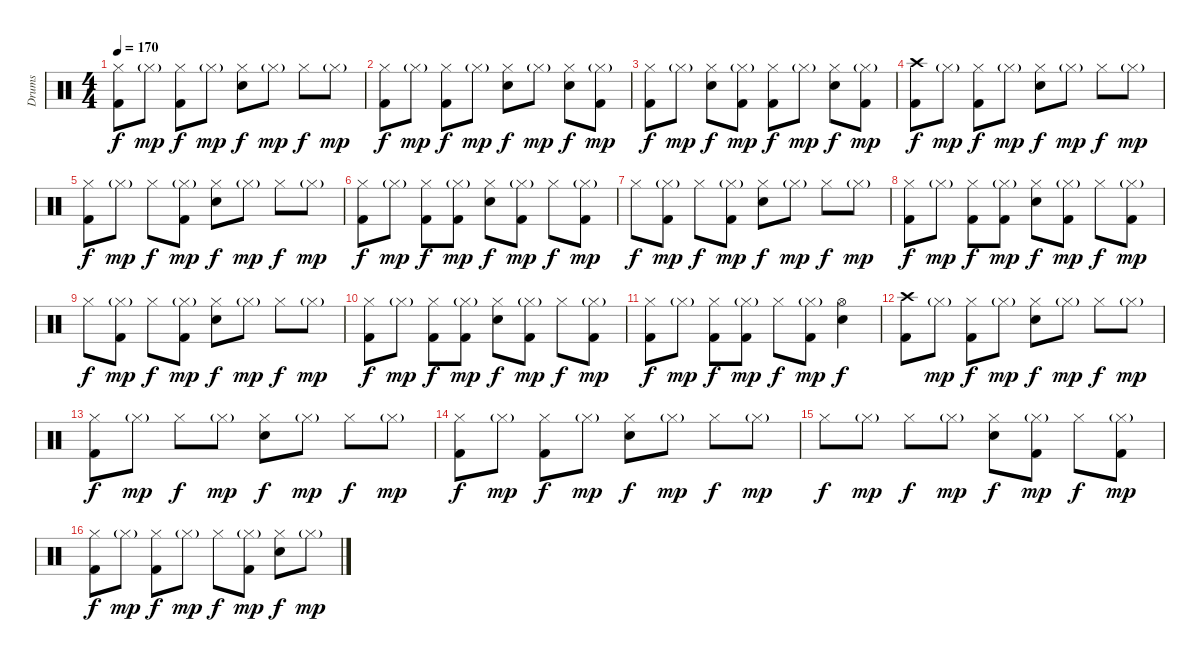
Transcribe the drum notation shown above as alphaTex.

\track ("Drums" "Drums") {instrument percussion}
\staff {score}
\articulation defaults
\ts (4 4)
\tempo 170
\clef neutral
\ks c
("Hi-Hat (closed)" "Kick (hit) 2").8{dy f} "Hi-Hat (closed)"{g}.8{dy mp} ("Hi-Hat (closed)" "Kick (hit) 2").8{dy f} "Hi-Hat (closed)"{g}.8{dy mp} ("Hi-Hat (closed)" "Snare (hit) 2").8{dy f} "Hi-Hat (closed)"{g}.8{dy mp} "Hi-Hat (closed)".8{dy f} "Hi-Hat (closed)"{g}.8{dy mp} |
("Hi-Hat (closed)" "Kick (hit) 2").8{dy f} "Hi-Hat (closed)"{g}.8{dy mp} ("Hi-Hat (closed)" "Kick (hit) 2").8{dy f} "Hi-Hat (closed)"{g}.8{dy mp} ("Hi-Hat (closed)" "Snare (hit) 2").8{dy f} "Hi-Hat (closed)"{g}.8{dy mp} ("Hi-Hat (closed)" "Snare (hit) 2").8{dy f} ("Hi-Hat (closed)"{g} "Kick (hit) 2").8{dy mp} |
("Hi-Hat (closed)" "Kick (hit) 2").8{dy f} "Hi-Hat (closed)"{g}.8{dy mp} ("Hi-Hat (closed)" "Snare (hit) 2").8{dy f} ("Hi-Hat (closed)"{g} "Kick (hit) 2").8{dy mp} ("Hi-Hat (closed)" "Kick (hit) 2").8{dy f} "Hi-Hat (closed)"{g}.8{dy mp} ("Hi-Hat (closed)" "Snare (hit) 2").8{dy f} ("Hi-Hat (closed)"{g} "Kick (hit) 2").8{dy mp} |
("Crash high (hit)" "Kick (hit) 2").8{dy f} "Hi-Hat (closed)"{g}.8{dy mp} ("Hi-Hat (closed)" "Kick (hit) 2").8{dy f} "Hi-Hat (closed)"{g}.8{dy mp} ("Hi-Hat (closed)" "Snare (hit) 2").8{dy f} "Hi-Hat (closed)"{g}.8{dy mp} "Hi-Hat (closed)".8{dy f} "Hi-Hat (closed)"{g}.8{dy mp} |
("Hi-Hat (closed)" "Kick (hit) 2").8{dy f} "Hi-Hat (closed)"{g}.8{dy mp} "Hi-Hat (closed)".8{dy f} ("Hi-Hat (closed)"{g} "Kick (hit) 2").8{dy mp} ("Hi-Hat (closed)" "Snare (hit) 2").8{dy f} "Hi-Hat (closed)"{g}.8{dy mp} "Hi-Hat (closed)".8{dy f} "Hi-Hat (closed)"{g}.8{dy mp} |
("Hi-Hat (closed)" "Kick (hit) 2").8{dy f} "Hi-Hat (closed)"{g}.8{dy mp} ("Hi-Hat (closed)" "Kick (hit) 2").8{dy f} ("Hi-Hat (closed)"{g} "Kick (hit) 2").8{dy mp} ("Hi-Hat (closed)" "Snare (hit) 2").8{dy f} ("Hi-Hat (closed)"{g} "Kick (hit) 2").8{dy mp} "Hi-Hat (closed)".8{dy f} ("Hi-Hat (closed)"{g} "Kick (hit) 2").8{dy mp} |
"Hi-Hat (closed)".8{dy f} ("Hi-Hat (closed)"{g} "Kick (hit) 2").8{dy mp} "Hi-Hat (closed)".8{dy f} ("Hi-Hat (closed)"{g} "Kick (hit) 2").8{dy mp} ("Hi-Hat (closed)" "Snare (hit) 2").8{dy f} "Hi-Hat (closed)"{g}.8{dy mp} "Hi-Hat (closed)".8{dy f} "Hi-Hat (closed)"{g}.8{dy mp} |
("Hi-Hat (closed)" "Kick (hit) 2").8{dy f} "Hi-Hat (closed)"{g}.8{dy mp} ("Hi-Hat (closed)" "Kick (hit) 2").8{dy f} ("Hi-Hat (closed)"{g} "Kick (hit) 2").8{dy mp} ("Hi-Hat (closed)" "Snare (hit) 2").8{dy f} ("Hi-Hat (closed)"{g} "Kick (hit) 2").8{dy mp} "Hi-Hat (closed)".8{dy f} ("Hi-Hat (closed)"{g} "Kick (hit) 2").8{dy mp} |
"Hi-Hat (closed)".8{dy f} ("Hi-Hat (closed)"{g} "Kick (hit) 2").8{dy mp} "Hi-Hat (closed)".8{dy f} ("Hi-Hat (closed)"{g} "Kick (hit) 2").8{dy mp} ("Hi-Hat (closed)" "Snare (hit) 2").8{dy f} "Hi-Hat (closed)"{g}.8{dy mp} "Hi-Hat (closed)".8{dy f} "Hi-Hat (closed)"{g}.8{dy mp} |
("Hi-Hat (closed)" "Kick (hit) 2").8{dy f} "Hi-Hat (closed)"{g}.8{dy mp} ("Hi-Hat (closed)" "Kick (hit) 2").8{dy f} ("Hi-Hat (closed)"{g} "Kick (hit) 2").8{dy mp} ("Hi-Hat (closed)" "Snare (hit) 2").8{dy f} ("Hi-Hat (closed)"{g} "Kick (hit) 2").8{dy mp} "Hi-Hat (closed)".8{dy f} ("Hi-Hat (closed)"{g} "Kick (hit) 2").8{dy mp} |
("Hi-Hat (closed)" "Kick (hit) 2").8{dy f} "Hi-Hat (closed)"{g}.8{dy mp} ("Hi-Hat (closed)" "Kick (hit) 2").8{dy f} ("Hi-Hat (closed)"{g} "Kick (hit) 2").8{dy mp} "Hi-Hat (closed)".8{dy f} ("Hi-Hat (closed)"{g} "Kick (hit) 2").8{dy mp} ("Hi-Hat (open)" "Snare (hit) 2").4{dy f} |
("Crash high (hit)" "Kick (hit) 2").8 "Hi-Hat (closed)"{g}.8{dy mp} ("Hi-Hat (closed)" "Kick (hit) 2").8{dy f} "Hi-Hat (closed)"{g}.8{dy mp} ("Hi-Hat (closed)" "Snare (hit) 2").8{dy f} "Hi-Hat (closed)"{g}.8{dy mp} "Hi-Hat (closed)".8{dy f} "Hi-Hat (closed)"{g}.8{dy mp} |
("Hi-Hat (closed)" "Kick (hit) 2").8{dy f} "Hi-Hat (closed)"{g}.8{dy mp} "Hi-Hat (closed)".8{dy f} "Hi-Hat (closed)"{g}.8{dy mp} ("Hi-Hat (closed)" "Snare (hit) 2").8{dy f} "Hi-Hat (closed)"{g}.8{dy mp} "Hi-Hat (closed)".8{dy f} "Hi-Hat (closed)"{g}.8{dy mp} |
("Hi-Hat (closed)" "Kick (hit) 2").8{dy f} "Hi-Hat (closed)"{g}.8{dy mp} ("Hi-Hat (closed)" "Kick (hit) 2").8{dy f} "Hi-Hat (closed)"{g}.8{dy mp} ("Hi-Hat (closed)" "Snare (hit) 2").8{dy f} "Hi-Hat (closed)"{g}.8{dy mp} "Hi-Hat (closed)".8{dy f} "Hi-Hat (closed)"{g}.8{dy mp} |
"Hi-Hat (closed)".8{dy f} "Hi-Hat (closed)"{g}.8{dy mp} "Hi-Hat (closed)".8{dy f} "Hi-Hat (closed)"{g}.8{dy mp} ("Hi-Hat (closed)" "Snare (hit) 2").8{dy f} ("Hi-Hat (closed)"{g} "Kick (hit) 2").8{dy mp} "Hi-Hat (closed)".8{dy f} ("Hi-Hat (closed)"{g} "Kick (hit) 2").8{dy mp} |
("Hi-Hat (closed)" "Kick (hit) 2").8{dy f} "Hi-Hat (closed)"{g}.8{dy mp} ("Hi-Hat (closed)" "Kick (hit) 2").8{dy f} "Hi-Hat (closed)"{g}.8{dy mp} "Hi-Hat (closed)".8{dy f} ("Hi-Hat (closed)"{g} "Kick (hit) 2").8{dy mp} ("Hi-Hat (closed)" "Snare (hit) 2").8{dy f} "Hi-Hat (closed)"{g}.8{dy mp}
